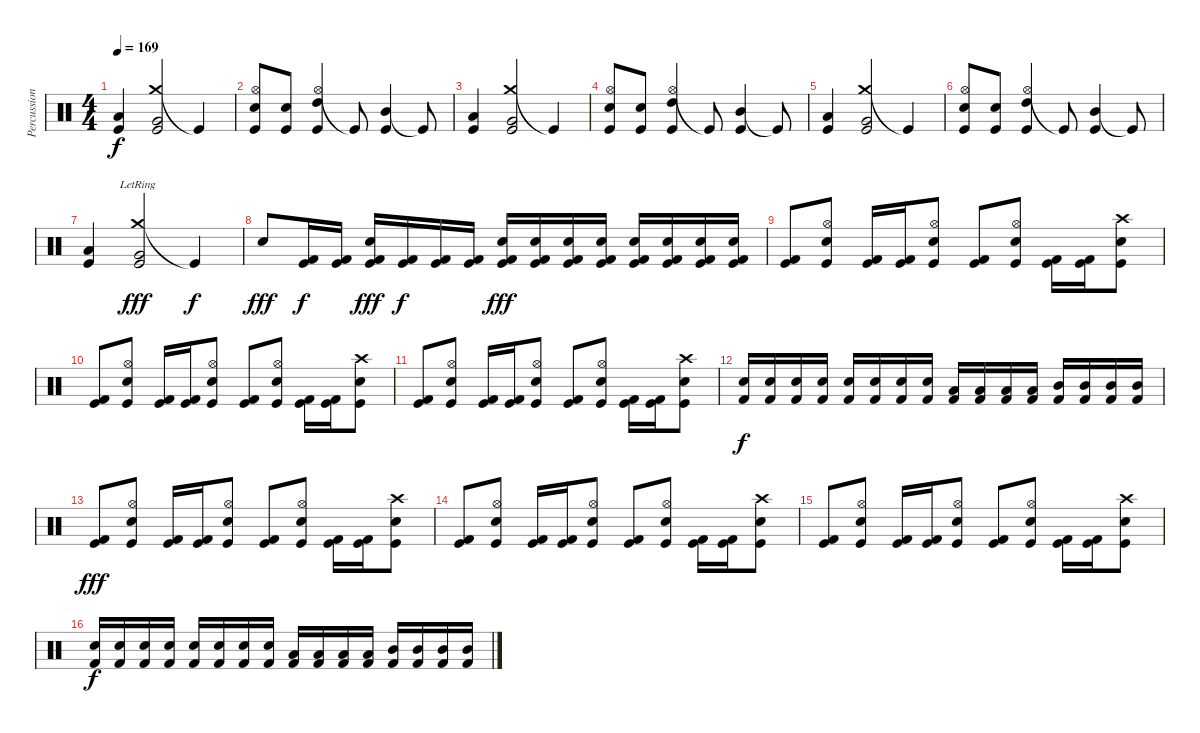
\track ("Percussion" "Percussion") {instrument percussion}
\staff {score}
\articulation defaults
\ts (4 4)
\tempo 169
\clef neutral
\ks c
("Low Tom (hit)" "Kick (hit)").4{dy f} ("Crash medium (hit)" "Very Low Tom (hit)" "Kick (hit)").2 "Kick (hit)"{t}.4 |
("Hi-Hat (open)" "Electric Snare (hit)" "Kick (hit)").8 ("Electric Snare (hit)" "Kick (hit)").8 ("Hi-Hat (open)" "High Tom (hit)" "Kick (hit)").4 "Kick (hit)"{t}.8 ("Mid Tom (hit)" "Kick (hit)").4 "Kick (hit)"{t}.8 |
("Low Tom (hit)" "Kick (hit)").4 ("Crash medium (hit)" "Very Low Tom (hit)" "Kick (hit)").2 "Kick (hit)"{t}.4 |
("Hi-Hat (open)" "Electric Snare (hit)" "Kick (hit)").8 ("Electric Snare (hit)" "Kick (hit)").8 ("Hi-Hat (open)" "High Tom (hit)" "Kick (hit)").4 "Kick (hit)"{t}.8 ("Mid Tom (hit)" "Kick (hit)").4 "Kick (hit)"{t}.8 |
("Low Tom (hit)" "Kick (hit)").4 ("Crash medium (hit)" "Very Low Tom (hit)" "Kick (hit)").2 "Kick (hit)"{t}.4 |
("Hi-Hat (open)" "Electric Snare (hit)" "Kick (hit)").8 ("Electric Snare (hit)" "Kick (hit)").8 ("Hi-Hat (open)" "High Tom (hit)" "Kick (hit)").4 "Kick (hit)"{t}.8 ("Mid Tom (hit)" "Kick (hit)").4 "Kick (hit)"{t}.8 |
("Low Tom (hit)" "Kick (hit)").4 ("Crash medium (hit)"{lr} "Very Low Tom (hit)" "Kick (hit)").2{dy fff} "Kick (hit)"{t}.4{dy f} |
"Electric Snare (hit)".8{dy fff} ("Kick (hit) 2" "Kick (hit)").16{dy f} ("Kick (hit) 2" "Kick (hit)").16 ("Kick (hit) 2" "Electric Snare (hit)" "Kick (hit)").16{dy fff} ("Kick (hit) 2" "Kick (hit)").16{dy f} ("Kick (hit) 2" "Kick (hit)").16 ("Kick (hit) 2" "Kick (hit)").16 ("Kick (hit) 2" "Snare (hit) 2" "Kick (hit)").16{dy fff} ("Kick (hit) 2" "Snare (hit) 2" "Kick (hit)").16 ("Kick (hit) 2" "Snare (hit) 2" "Kick (hit)").16 ("Kick (hit) 2" "Snare (hit) 2" "Kick (hit)").16 ("Kick (hit) 2" "Snare (hit) 2" "Kick (hit)").16 ("Kick (hit) 2" "Snare (hit) 2" "Kick (hit)").16 ("Kick (hit) 2" "Snare (hit) 2" "Kick (hit)").16 ("Kick (hit) 2" "Snare (hit) 2" "Kick (hit)").16 |
("Kick (hit) 2" "Kick (hit)").8 ("Hi-Hat (open)" "Electric Snare (hit)" "Kick (hit)").8 ("Kick (hit) 2" "Kick (hit)").16 ("Kick (hit) 2" "Kick (hit)").16 ("Hi-Hat (open)" "Electric Snare (hit)" "Kick (hit)").8 ("Kick (hit) 2" "Kick (hit)").8 ("Hi-Hat (open)" "Electric Snare (hit)" "Kick (hit)").8 ("Kick (hit) 2" "Kick (hit)").16 ("Kick (hit) 2" "Kick (hit)").16 ("Crash high (hit)" "Electric Snare (hit)" "Kick (hit)").8 |
("Kick (hit) 2" "Kick (hit)").8 ("Hi-Hat (open)" "Electric Snare (hit)" "Kick (hit)").8 ("Kick (hit) 2" "Kick (hit)").16 ("Kick (hit) 2" "Kick (hit)").16 ("Hi-Hat (open)" "Electric Snare (hit)" "Kick (hit)").8 ("Kick (hit) 2" "Kick (hit)").8 ("Hi-Hat (open)" "Electric Snare (hit)" "Kick (hit)").8 ("Kick (hit) 2" "Kick (hit)").16 ("Kick (hit) 2" "Kick (hit)").16 ("Crash high (hit)" "Electric Snare (hit)" "Kick (hit)").8 |
("Kick (hit) 2" "Kick (hit)").8 ("Hi-Hat (open)" "Electric Snare (hit)" "Kick (hit)").8 ("Kick (hit) 2" "Kick (hit)").16 ("Kick (hit) 2" "Kick (hit)").16 ("Hi-Hat (open)" "Electric Snare (hit)" "Kick (hit)").8 ("Kick (hit) 2" "Kick (hit)").8 ("Hi-Hat (open)" "Electric Snare (hit)" "Kick (hit)").8 ("Kick (hit) 2" "Kick (hit)").16 ("Kick (hit) 2" "Kick (hit)").16 ("Crash high (hit)" "Electric Snare (hit)" "Kick (hit)").8 |
("Electric Snare (hit)" "Kick (hit) 2").16{dy f} ("Electric Snare (hit)" "Kick (hit) 2").16 ("Electric Snare (hit)" "Kick (hit) 2").16 ("Electric Snare (hit)" "Kick (hit) 2").16 ("Snare (hit) 2" "Kick (hit) 2").16 ("Snare (hit) 2" "Kick (hit) 2").16 ("Snare (hit) 2" "Kick (hit) 2").16 ("Snare (hit) 2" "Kick (hit) 2").16 ("Low Tom (hit)" "Kick (hit) 2").16 ("Low Tom (hit)" "Kick (hit) 2").16 ("Low Tom (hit)" "Kick (hit) 2").16 ("Low Tom (hit)" "Kick (hit) 2").16 ("Mid Tom (hit)" "Kick (hit) 2").16 ("Mid Tom (hit)" "Kick (hit) 2").16 ("Mid Tom (hit)" "Kick (hit) 2").16 ("Mid Tom (hit)" "Kick (hit) 2").16 |
("Kick (hit) 2" "Kick (hit)").8{dy fff} ("Hi-Hat (open)" "Electric Snare (hit)" "Kick (hit)").8 ("Kick (hit) 2" "Kick (hit)").16 ("Kick (hit) 2" "Kick (hit)").16 ("Hi-Hat (open)" "Electric Snare (hit)" "Kick (hit)").8 ("Kick (hit) 2" "Kick (hit)").8 ("Hi-Hat (open)" "Electric Snare (hit)" "Kick (hit)").8 ("Kick (hit) 2" "Kick (hit)").16 ("Kick (hit) 2" "Kick (hit)").16 ("Crash high (hit)" "Electric Snare (hit)" "Kick (hit)").8 |
("Kick (hit) 2" "Kick (hit)").8 ("Hi-Hat (open)" "Electric Snare (hit)" "Kick (hit)").8 ("Kick (hit) 2" "Kick (hit)").16 ("Kick (hit) 2" "Kick (hit)").16 ("Hi-Hat (open)" "Electric Snare (hit)" "Kick (hit)").8 ("Kick (hit) 2" "Kick (hit)").8 ("Hi-Hat (open)" "Electric Snare (hit)" "Kick (hit)").8 ("Kick (hit) 2" "Kick (hit)").16 ("Kick (hit) 2" "Kick (hit)").16 ("Crash high (hit)" "Electric Snare (hit)" "Kick (hit)").8 |
("Kick (hit) 2" "Kick (hit)").8 ("Hi-Hat (open)" "Electric Snare (hit)" "Kick (hit)").8 ("Kick (hit) 2" "Kick (hit)").16 ("Kick (hit) 2" "Kick (hit)").16 ("Hi-Hat (open)" "Electric Snare (hit)" "Kick (hit)").8 ("Kick (hit) 2" "Kick (hit)").8 ("Hi-Hat (open)" "Electric Snare (hit)" "Kick (hit)").8 ("Kick (hit) 2" "Kick (hit)").16 ("Kick (hit) 2" "Kick (hit)").16 ("Crash high (hit)" "Electric Snare (hit)" "Kick (hit)").8 |
("Electric Snare (hit)" "Kick (hit) 2").16{dy f} ("Electric Snare (hit)" "Kick (hit) 2").16 ("Electric Snare (hit)" "Kick (hit) 2").16 ("Electric Snare (hit)" "Kick (hit) 2").16 ("Snare (hit) 2" "Kick (hit) 2").16 ("Snare (hit) 2" "Kick (hit) 2").16 ("Snare (hit) 2" "Kick (hit) 2").16 ("Snare (hit) 2" "Kick (hit) 2").16 ("Low Tom (hit)" "Kick (hit) 2").16 ("Low Tom (hit)" "Kick (hit) 2").16 ("Low Tom (hit)" "Kick (hit) 2").16 ("Low Tom (hit)" "Kick (hit) 2").16 ("Mid Tom (hit)" "Kick (hit) 2").16 ("Mid Tom (hit)" "Kick (hit) 2").16 ("Mid Tom (hit)" "Kick (hit) 2").16 ("Mid Tom (hit)" "Kick (hit) 2").16
